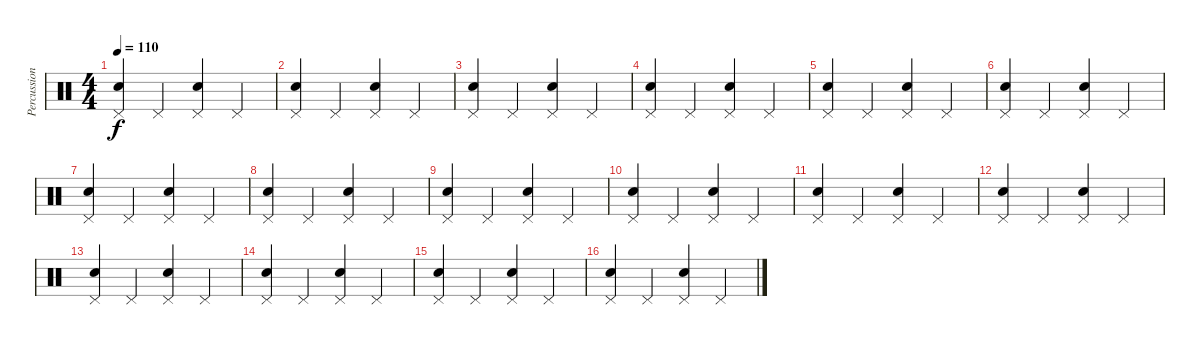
\track ("Percussions" "Percussion") {instrument percussion}
\staff {score}
\articulation defaults
\ts (4 4)
\tempo 110
\clef neutral
\ks c
("Pedal Hi-Hat (hit)" "Hand Clap (hit)").4{dy f} "Pedal Hi-Hat (hit)".4 ("Pedal Hi-Hat (hit)" "Hand Clap (hit)").4 "Pedal Hi-Hat (hit)".4 |
("Pedal Hi-Hat (hit)" "Hand Clap (hit)").4 "Pedal Hi-Hat (hit)".4 ("Pedal Hi-Hat (hit)" "Hand Clap (hit)").4 "Pedal Hi-Hat (hit)".4 |
("Pedal Hi-Hat (hit)" "Hand Clap (hit)").4 "Pedal Hi-Hat (hit)".4 ("Pedal Hi-Hat (hit)" "Hand Clap (hit)").4 "Pedal Hi-Hat (hit)".4 |
("Pedal Hi-Hat (hit)" "Hand Clap (hit)").4 "Pedal Hi-Hat (hit)".4 ("Pedal Hi-Hat (hit)" "Hand Clap (hit)").4 "Pedal Hi-Hat (hit)".4 |
("Pedal Hi-Hat (hit)" "Hand Clap (hit)").4 "Pedal Hi-Hat (hit)".4 ("Pedal Hi-Hat (hit)" "Hand Clap (hit)").4 "Pedal Hi-Hat (hit)".4 |
("Pedal Hi-Hat (hit)" "Hand Clap (hit)").4 "Pedal Hi-Hat (hit)".4 ("Pedal Hi-Hat (hit)" "Hand Clap (hit)").4 "Pedal Hi-Hat (hit)".4 |
("Pedal Hi-Hat (hit)" "Hand Clap (hit)").4 "Pedal Hi-Hat (hit)".4 ("Pedal Hi-Hat (hit)" "Hand Clap (hit)").4 "Pedal Hi-Hat (hit)".4 |
("Pedal Hi-Hat (hit)" "Hand Clap (hit)").4 "Pedal Hi-Hat (hit)".4 ("Pedal Hi-Hat (hit)" "Hand Clap (hit)").4 "Pedal Hi-Hat (hit)".4 |
("Pedal Hi-Hat (hit)" "Hand Clap (hit)").4 "Pedal Hi-Hat (hit)".4 ("Pedal Hi-Hat (hit)" "Hand Clap (hit)").4 "Pedal Hi-Hat (hit)".4 |
("Pedal Hi-Hat (hit)" "Hand Clap (hit)").4 "Pedal Hi-Hat (hit)".4 ("Pedal Hi-Hat (hit)" "Hand Clap (hit)").4 "Pedal Hi-Hat (hit)".4 |
("Pedal Hi-Hat (hit)" "Hand Clap (hit)").4 "Pedal Hi-Hat (hit)".4 ("Pedal Hi-Hat (hit)" "Hand Clap (hit)").4 "Pedal Hi-Hat (hit)".4 |
("Pedal Hi-Hat (hit)" "Hand Clap (hit)").4 "Pedal Hi-Hat (hit)".4 ("Pedal Hi-Hat (hit)" "Hand Clap (hit)").4 "Pedal Hi-Hat (hit)".4 |
("Pedal Hi-Hat (hit)" "Hand Clap (hit)").4 "Pedal Hi-Hat (hit)".4 ("Pedal Hi-Hat (hit)" "Hand Clap (hit)").4 "Pedal Hi-Hat (hit)".4 |
("Pedal Hi-Hat (hit)" "Hand Clap (hit)").4 "Pedal Hi-Hat (hit)".4 ("Pedal Hi-Hat (hit)" "Hand Clap (hit)").4 "Pedal Hi-Hat (hit)".4 |
("Pedal Hi-Hat (hit)" "Hand Clap (hit)").4 "Pedal Hi-Hat (hit)".4 ("Pedal Hi-Hat (hit)" "Hand Clap (hit)").4 "Pedal Hi-Hat (hit)".4 |
("Pedal Hi-Hat (hit)" "Hand Clap (hit)").4 "Pedal Hi-Hat (hit)".4 ("Pedal Hi-Hat (hit)" "Hand Clap (hit)").4 "Pedal Hi-Hat (hit)".4
